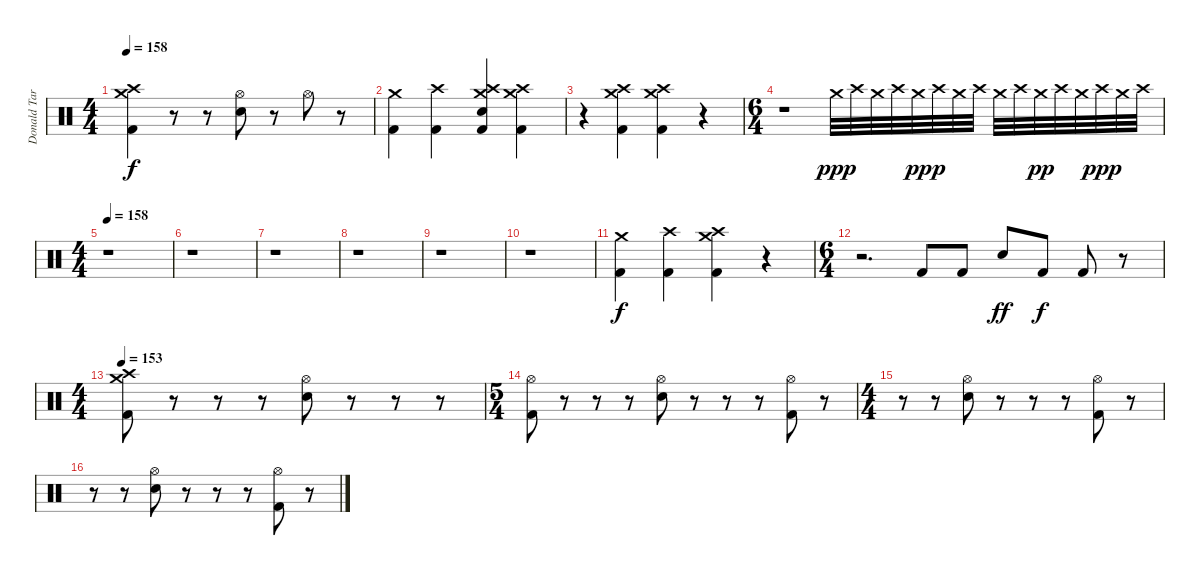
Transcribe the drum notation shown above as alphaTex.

\track ("Donald Tardy (Drums)" "Donald Tar") {instrument percussion}
\staff {score}
\articulation defaults
\ts (4 4)
\tempo 158
\clef neutral
\ks c
("Kick (hit) 2" "Crash medium (hit)" "Crash high (hit)").4{dy f} r.8 r.8 ("Electric Snare (hit)" "Hi-Hat (open)").8 r.8 "Hi-Hat (open)".8 r.8 |
("Kick (hit) 2" "Crash medium (hit)").4 ("Kick (hit) 2" "Crash high (hit)").4 ("Kick (hit) 2" "Electric Snare (hit)" "Crash high (hit)" "Crash medium (hit)").4 ("Kick (hit) 2" "Crash high (hit)" "Crash medium (hit)").4 |
r.4 ("Kick (hit) 2" "Crash high (hit)" "Crash medium (hit)").4 ("Kick (hit) 2" "Crash high (hit)" "Crash medium (hit)").4 r.4 |
\ts (6 4)
r.1 "Crash medium (hit)".32{dy ppp} "Crash high (hit)".32 "Crash medium (hit)".32 "Crash high (hit)".32 "Crash medium (hit)".32{dy pp} "Crash high (hit)".32{dy p} "Crash medium (hit)".32 "Crash high (hit)".32 "Crash medium (hit)".32 "Crash high (hit)".32 "Crash medium (hit)".32{dy pp} "Crash high (hit)".32 "Crash medium (hit)".32 "Crash high (hit)".32{dy ppp} "Crash medium (hit)".32 "Crash high (hit)".32 |
\ts (4 4)
\tempo 158
r.1 |
r.1 |
r.1 |
r.1 |
r.1 |
r.1 |
("Kick (hit) 2" "Crash medium (hit)").4{dy f} ("Kick (hit) 2" "Crash high (hit)").4 ("Kick (hit) 2" "Crash high (hit)" "Crash medium (hit)").4 r.4 |
\ts (6 4)
r.2{d} "Kick (hit) 2".8 "Kick (hit) 2".8 "Electric Snare (hit)".8{dy ff} "Kick (hit) 2".8{dy f} "Kick (hit) 2".8 r.8 |
\ts (4 4)
\tempo 153
("Kick (hit) 2" "Crash high (hit)" "Crash medium (hit)").8 r.8 r.8 r.8 ("Electric Snare (hit)" "Hi-Hat (open)").8 r.8 r.8 r.8 |
\ts (5 4)
("Kick (hit) 2" "Hi-Hat (open)").8 r.8 r.8 r.8 ("Electric Snare (hit)" "Hi-Hat (open)").8 r.8 r.8 r.8 ("Kick (hit) 2" "Hi-Hat (open)").8 r.8 |
\ts (4 4)
r.8 r.8 ("Electric Snare (hit)" "Hi-Hat (open)").8 r.8 r.8 r.8 ("Kick (hit) 2" "Hi-Hat (open)").8 r.8 |
r.8 r.8 ("Electric Snare (hit)" "Hi-Hat (open)").8 r.8 r.8 r.8 ("Kick (hit) 2" "Hi-Hat (open)").8 r.8
